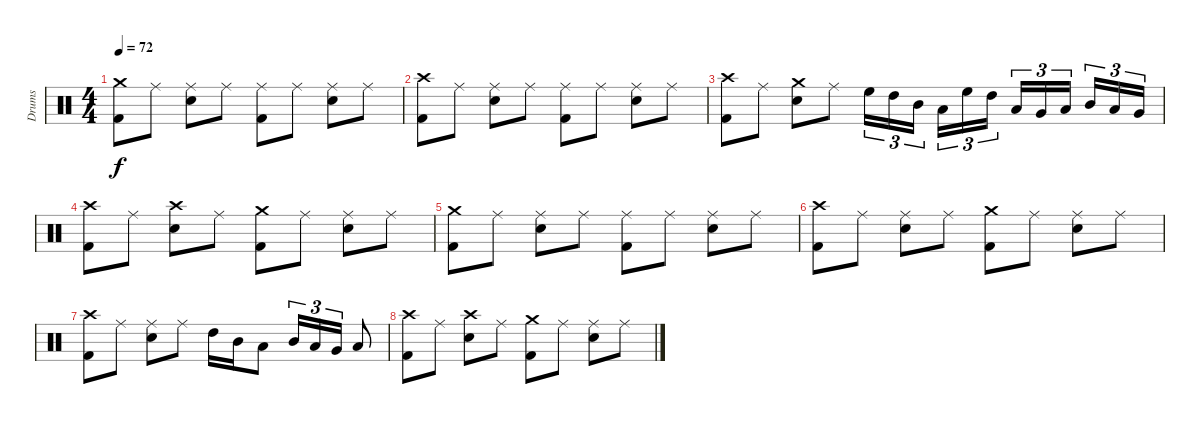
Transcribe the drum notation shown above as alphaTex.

\track ("Drums" "Drums") {instrument percussion}
\staff {score}
\articulation defaults
\ts (4 4)
\tempo 72
\clef neutral
\ks c
("Crash medium (hit)" "Kick (hit) 2").8{dy f} "Ride (middle)".8 ("Ride (middle)" "Snare (hit) 2").8 "Ride (middle)".8 ("Ride (middle)" "Kick (hit) 2").8 "Ride (middle)".8 ("Ride (middle)" "Snare (hit) 2").8 "Ride (middle)".8 |
("Crash high (hit)" "Kick (hit) 2").8 "Ride (middle)".8 ("Ride (middle)" "Snare (hit) 2").8 "Ride (middle)".8 ("Ride (middle)" "Kick (hit) 2").8 "Ride (middle)".8 ("Ride (middle)" "Snare (hit) 2").8 "Ride (middle)".8 |
("Crash high (hit)" "Kick (hit) 2").8 "Ride (middle)".8 ("Crash medium (hit)" "Snare (hit) 2").8 "Ride (middle)".8 "High Floor Tom (hit)".16{tu (3 2)} "High Tom (hit)".16{tu (3 2)} "Mid Tom (hit)".16{tu (3 2)} "Low Tom (hit)".16{tu (3 2)} "High Floor Tom (hit)".16{tu (3 2)} "High Tom (hit)".16{tu (3 2)} "Low Tom (hit)".16{tu (3 2)} "Very Low Tom (hit)".16{tu (3 2)} "Low Floor Tom (hit)".16{tu (3 2)} "Mid Tom (hit)".16{tu (3 2)} "Low Tom (hit)".16{tu (3 2)} "Very Low Tom (hit)".16{tu (3 2)} |
("Crash high (hit)" "Kick (hit) 2").8 "Ride (middle)".8 ("Crash high (hit)" "Snare (hit) 2").8 "Ride (middle)".8 ("Crash medium (hit)" "Kick (hit) 2").8 "Ride (middle)".8 ("Ride (middle)" "Snare (hit) 2").8 "Ride (middle)".8 |
("Crash medium (hit)" "Kick (hit) 2").8 "Ride (middle)".8 ("Ride (middle)" "Snare (hit) 2").8 "Ride (middle)".8 ("Ride (middle)" "Kick (hit) 2").8 "Ride (middle)".8 ("Ride (middle)" "Snare (hit) 2").8 "Ride (middle)".8 |
("Crash high (hit)" "Kick (hit) 2").8 "Ride (middle)".8 ("Ride (middle)" "Snare (hit) 2").8 "Ride (middle)".8 ("Crash medium (hit)" "Kick (hit) 2").8 "Ride (middle)".8 ("Ride (middle)" "Snare (hit) 2").8 "Ride (middle)".8 |
("Crash high (hit)" "Kick (hit) 2").8{volume 0} "Ride (middle)".8 ("Ride (middle)" "Snare (hit) 2").8 "Ride (middle)".8 "High Tom (hit)".16 "Mid Tom (hit)".16 "Low Tom (hit)".8 "Mid Tom (hit)".16{tu (3 2)} "Low Tom (hit)".16{tu (3 2)} "Very Low Tom (hit)".16{tu (3 2)} "Low Floor Tom (hit)".8 |
("Crash high (hit)" "Kick (hit) 2").8 "Ride (middle)".8 ("Crash high (hit)" "Snare (hit) 2").8 "Ride (middle)".8 ("Crash medium (hit)" "Kick (hit) 2").8 "Ride (middle)".8 ("Ride (middle)" "Snare (hit) 2").8 "Ride (middle)".8
